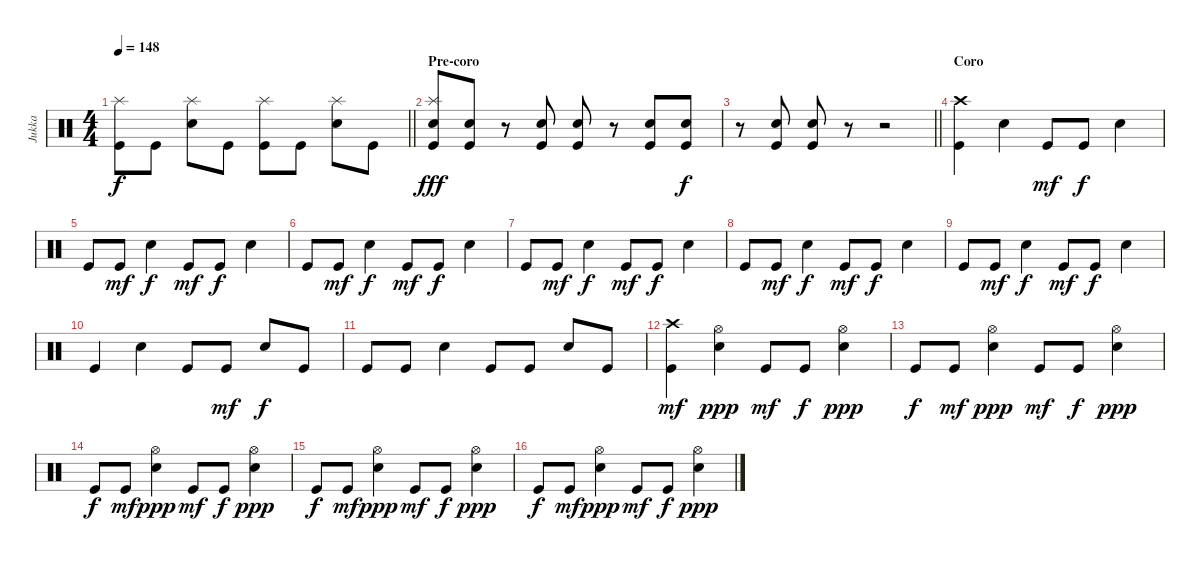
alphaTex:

\track ("Jukka" "Jukka") {instrument percussion}
\staff {score}
\articulation defaults
\ts (4 4)
\tempo 148
\clef neutral
\barLineRight lightlight
\ks c
("Kick (hit)" "Splash (hit)").8{dy f} "Kick (hit)".8 ("Snare (hit) 2" "Splash (hit)").8 "Kick (hit)".8 ("Kick (hit)" "Splash (hit)").8 "Kick (hit)".8 ("Snare (hit) 2" "Splash (hit)").8 "Kick (hit)".8 |
\section ("" "Pre-coro")
("Kick (hit)" "Snare (hit) 2" "Splash (hit)").8{dy fff} ("Kick (hit)" "Snare (hit) 2").8 r.8 ("Kick (hit)" "Snare (hit) 2").8 ("Kick (hit)" "Snare (hit) 2").8 r.8 ("Kick (hit)" "Snare (hit) 2").8 ("Kick (hit)" "Snare (hit) 2").8{dy f} |
\barLineRight lightlight
r.8 ("Kick (hit)" "Snare (hit) 2").8 ("Kick (hit)" "Snare (hit) 2").8 r.8 r.2 |
\section ("" "Coro")
("Kick (hit)" "Crash high (hit)").4 "Snare (hit) 2".4 "Kick (hit)".8{dy mf} "Kick (hit)".8{dy f} "Snare (hit) 2".4 |
"Kick (hit)".8 "Kick (hit)".8{dy mf} "Snare (hit) 2".4{dy f} "Kick (hit)".8{dy mf} "Kick (hit)".8{dy f} "Snare (hit) 2".4 |
"Kick (hit)".8 "Kick (hit)".8{dy mf} "Snare (hit) 2".4{dy f} "Kick (hit)".8{dy mf} "Kick (hit)".8{dy f} "Snare (hit) 2".4 |
"Kick (hit)".8 "Kick (hit)".8{dy mf} "Snare (hit) 2".4{dy f} "Kick (hit)".8{dy mf} "Kick (hit)".8{dy f} "Snare (hit) 2".4 |
"Kick (hit)".8 "Kick (hit)".8{dy mf} "Snare (hit) 2".4{dy f} "Kick (hit)".8{dy mf} "Kick (hit)".8{dy f} "Snare (hit) 2".4 |
"Kick (hit)".8 "Kick (hit)".8{dy mf} "Snare (hit) 2".4{dy f} "Kick (hit)".8{dy mf} "Kick (hit)".8{dy f} "Snare (hit) 2".4 |
"Kick (hit)".4 "Snare (hit) 2".4 "Kick (hit)".8 "Kick (hit)".8{dy mf} "Snare (hit) 2".8{dy f} "Kick (hit)".8 |
"Kick (hit)".8 "Kick (hit)".8 "Snare (hit) 2".4 "Kick (hit)".8 "Kick (hit)".8 "Snare (hit) 2".8 "Kick (hit)".8 |
("Kick (hit)" "Crash high (hit)").4{dy mf} ("Snare (hit) 2" "Hi-Hat (open)").4{dy ppp} "Kick (hit)".8{dy mf} "Kick (hit)".8{dy f} ("Snare (hit) 2" "Hi-Hat (open)").4{dy ppp} |
"Kick (hit)".8{dy f} "Kick (hit)".8{dy mf} ("Snare (hit) 2" "Hi-Hat (open)").4{dy ppp} "Kick (hit)".8{dy mf} "Kick (hit)".8{dy f} ("Snare (hit) 2" "Hi-Hat (open)").4{dy ppp} |
"Kick (hit)".8{dy f} "Kick (hit)".8{dy mf} ("Snare (hit) 2" "Hi-Hat (open)").4{dy ppp} "Kick (hit)".8{dy mf} "Kick (hit)".8{dy f} ("Snare (hit) 2" "Hi-Hat (open)").4{dy ppp} |
"Kick (hit)".8{dy f} "Kick (hit)".8{dy mf} ("Snare (hit) 2" "Hi-Hat (open)").4{dy ppp} "Kick (hit)".8{dy mf} "Kick (hit)".8{dy f} ("Snare (hit) 2" "Hi-Hat (open)").4{dy ppp} |
"Kick (hit)".8{dy f} "Kick (hit)".8{dy mf} ("Snare (hit) 2" "Hi-Hat (open)").4{dy ppp} "Kick (hit)".8{dy mf} "Kick (hit)".8{dy f} ("Snare (hit) 2" "Hi-Hat (open)").4{dy ppp}
